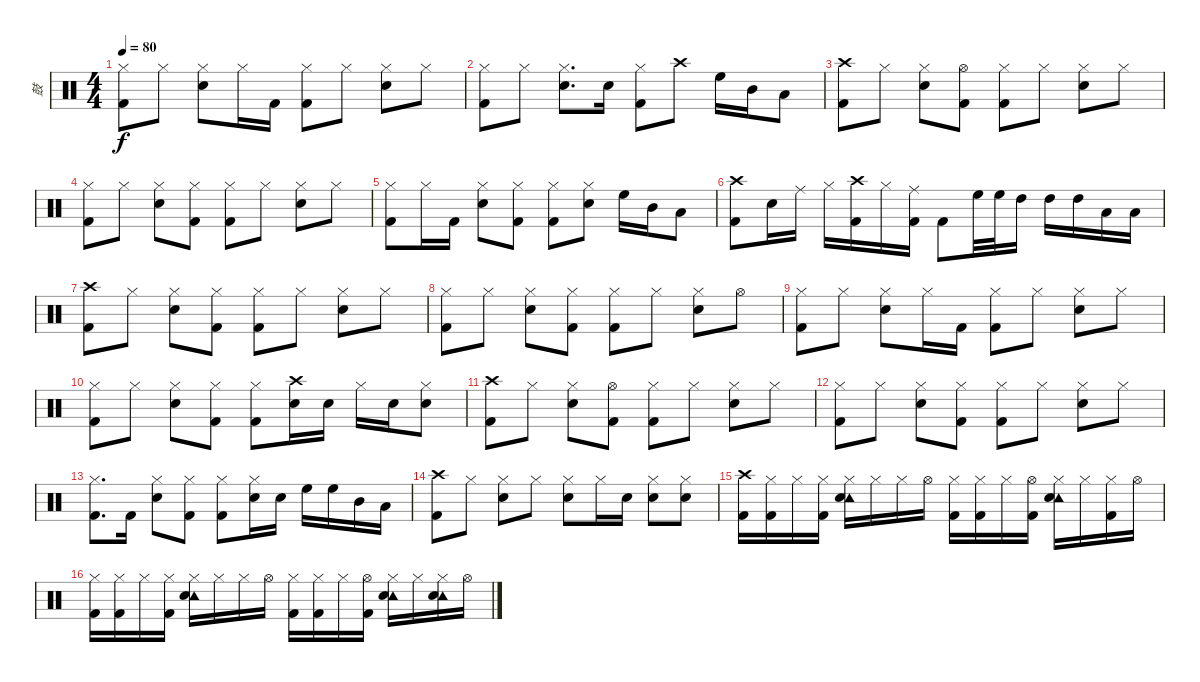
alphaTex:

\track ("鼓" "鼓") {instrument percussion}
\staff {score}
\articulation defaults
\ts (4 4)
\tempo 80
\clef neutral
\ks c
("Hi-Hat (closed)" "Kick (hit) 2").8{dy f} "Hi-Hat (closed)".8 ("Hi-Hat (closed)" "Snare (hit) 2").8 "Hi-Hat (closed)".16 "Kick (hit) 2".16 ("Hi-Hat (closed)" "Kick (hit) 2").8 "Hi-Hat (closed)".8 ("Hi-Hat (closed)" "Snare (hit) 2").8 "Hi-Hat (closed)".8 |
("Hi-Hat (closed)" "Kick (hit) 2").8 "Hi-Hat (closed)".8 ("Hi-Hat (closed)" "Snare (hit) 2").8{d} "Snare (hit) 2".16 ("Hi-Hat (closed)" "Kick (hit) 2").8 "Crash high (hit)".8 "High Floor Tom (hit)".16 "Mid Tom (hit)".16 "Low Tom (hit)".8 |
("Crash high (hit)" "Kick (hit) 2").8 "Hi-Hat (closed)".8 ("Hi-Hat (closed)" "Snare (hit) 2").8 ("Hi-Hat (open)" "Kick (hit) 2").8 ("Hi-Hat (closed)" "Kick (hit) 2").8 "Hi-Hat (closed)".8 ("Hi-Hat (closed)" "Snare (hit) 2").8 "Hi-Hat (closed)".8 |
("Hi-Hat (closed)" "Kick (hit) 2").8 "Hi-Hat (closed)".8 ("Hi-Hat (closed)" "Snare (hit) 2").8 ("Hi-Hat (closed)" "Kick (hit) 2").8 ("Hi-Hat (closed)" "Kick (hit) 2").8 "Hi-Hat (closed)".8 ("Hi-Hat (closed)" "Snare (hit) 2").8 "Hi-Hat (closed)".8 |
("Hi-Hat (closed)" "Kick (hit) 2").8 "Hi-Hat (closed)".16 "Kick (hit) 2".16 ("Hi-Hat (closed)" "Snare (hit) 2").8 ("Hi-Hat (closed)" "Kick (hit) 2").8 ("Hi-Hat (closed)" "Kick (hit) 2").8 ("Hi-Hat (closed)" "Snare (hit) 2").8 "High Floor Tom (hit)".16 "Mid Tom (hit)".16 "Low Tom (hit)".8 |
("Crash high (hit)" "Kick (hit) 2").8 "Snare (hit) 2".16 "Ride (middle)".16 "Hi-Hat (closed)".16 ("Crash high (hit)" "Kick (hit) 2").16 "Hi-Hat (closed)".16 ("Ride (middle)" "Kick (hit) 2").16 "Kick (hit) 2".8 "High Floor Tom (hit)".32 "High Floor Tom (hit)".32 "High Tom (hit)".16 "High Tom (hit)".16 "High Tom (hit)".16 "Low Tom (hit)".16 "Low Tom (hit)".16 |
("Crash high (hit)" "Kick (hit) 2").8 "Hi-Hat (closed)".8 ("Hi-Hat (closed)" "Snare (hit) 2").8 ("Hi-Hat (closed)" "Kick (hit) 2").8 ("Hi-Hat (closed)" "Kick (hit) 2").8 "Hi-Hat (closed)".8 ("Hi-Hat (closed)" "Snare (hit) 2").8 "Hi-Hat (closed)".8 |
("Hi-Hat (closed)" "Kick (hit) 2").8 "Hi-Hat (closed)".8 ("Hi-Hat (closed)" "Snare (hit) 2").8 ("Hi-Hat (closed)" "Kick (hit) 2").8 ("Hi-Hat (closed)" "Kick (hit) 2").8 "Hi-Hat (closed)".8 ("Hi-Hat (closed)" "Snare (hit) 2").8 "Hi-Hat (open)".8 |
("Hi-Hat (closed)" "Kick (hit) 2").8 "Hi-Hat (closed)".8 ("Hi-Hat (closed)" "Snare (hit) 2").8 "Hi-Hat (closed)".16 "Kick (hit) 2".16 ("Hi-Hat (closed)" "Kick (hit) 2").8 "Hi-Hat (closed)".8 ("Hi-Hat (closed)" "Snare (hit) 2").8 "Hi-Hat (closed)".8 |
("Hi-Hat (closed)" "Kick (hit) 2").8 "Hi-Hat (closed)".8 ("Hi-Hat (closed)" "Snare (hit) 2").8 ("Hi-Hat (closed)" "Kick (hit) 2").8 ("Hi-Hat (closed)" "Kick (hit) 2").8 ("Crash high (hit)" "Snare (hit) 2").16 "Snare (hit) 2".16 "Hi-Hat (closed)".16 "Snare (hit) 2".16 ("Hi-Hat (closed)" "Snare (hit) 2").8 |
("Crash high (hit)" "Kick (hit) 2").8 "Hi-Hat (closed)".8 ("Hi-Hat (closed)" "Snare (hit) 2").8 ("Hi-Hat (open)" "Kick (hit) 2").8 ("Hi-Hat (closed)" "Kick (hit) 2").8 "Hi-Hat (closed)".8 ("Hi-Hat (closed)" "Snare (hit) 2").8 "Hi-Hat (closed)".8 |
("Hi-Hat (closed)" "Kick (hit) 2").8 "Hi-Hat (closed)".8 ("Hi-Hat (closed)" "Snare (hit) 2").8 ("Hi-Hat (closed)" "Kick (hit) 2").8 ("Hi-Hat (closed)" "Kick (hit) 2").8 "Hi-Hat (closed)".8 ("Hi-Hat (closed)" "Snare (hit) 2").8 "Hi-Hat (closed)".8 |
("Hi-Hat (closed)" "Kick (hit) 2").8{d} "Kick (hit) 2".16 ("Hi-Hat (closed)" "Snare (hit) 2").8 ("Hi-Hat (closed)" "Kick (hit) 2").8 ("Hi-Hat (closed)" "Kick (hit) 2").8 ("Hi-Hat (closed)" "Snare (hit) 2").16 "Snare (hit) 2".16 "High Floor Tom (hit)".16 "High Floor Tom (hit)".16 "Mid Tom (hit)".16 "Low Tom (hit)".16 |
("Crash high (hit)" "Kick (hit) 2").8 "Hi-Hat (closed)".8 ("Hi-Hat (closed)" "Snare (hit) 2").8 "Hi-Hat (closed)".8 ("Hi-Hat (closed)" "Snare (hit) 2").8 "Hi-Hat (closed)".16 "Snare (hit) 2".16 ("Hi-Hat (closed)" "Snare (hit) 2").8 ("Hi-Hat (closed)" "Snare (hit) 2").8 |
("Crash high (hit)" "Kick (hit) 2").16 ("Hi-Hat (closed)" "Kick (hit) 2").16 "Hi-Hat (closed)".16 ("Hi-Hat (closed)" "Kick (hit) 2").16 ("Hi-Hat (closed)" "Tambourine (hit)" "Snare (hit) 2").16 "Hi-Hat (closed)".16 "Hi-Hat (closed)".16 "Hi-Hat (open)".16 ("Hi-Hat (closed)" "Kick (hit) 2").16 ("Hi-Hat (closed)" "Kick (hit) 2").16 "Hi-Hat (closed)".16 ("Hi-Hat (open)" "Kick (hit) 2").16 ("Hi-Hat (closed)" "Tambourine (hit)" "Snare (hit) 2").16 "Hi-Hat (closed)".16 ("Hi-Hat (closed)" "Kick (hit) 2").16 "Hi-Hat (open)".16 |
("Hi-Hat (closed)" "Kick (hit) 2").16 ("Hi-Hat (closed)" "Kick (hit) 2").16 "Hi-Hat (closed)".16 ("Hi-Hat (closed)" "Kick (hit) 2").16 ("Hi-Hat (closed)" "Tambourine (hit)" "Snare (hit) 2").16 "Hi-Hat (closed)".16 "Hi-Hat (closed)".16 "Hi-Hat (open)".16 ("Hi-Hat (closed)" "Kick (hit) 2").16 ("Hi-Hat (closed)" "Kick (hit) 2").16 "Hi-Hat (closed)".16 ("Hi-Hat (open)" "Kick (hit) 2").16 ("Hi-Hat (closed)" "Tambourine (hit)" "Snare (hit) 2").16 "Hi-Hat (closed)".16 ("Hi-Hat (closed)" "Tambourine (hit)" "Snare (hit) 2").16 "Hi-Hat (open)".16
